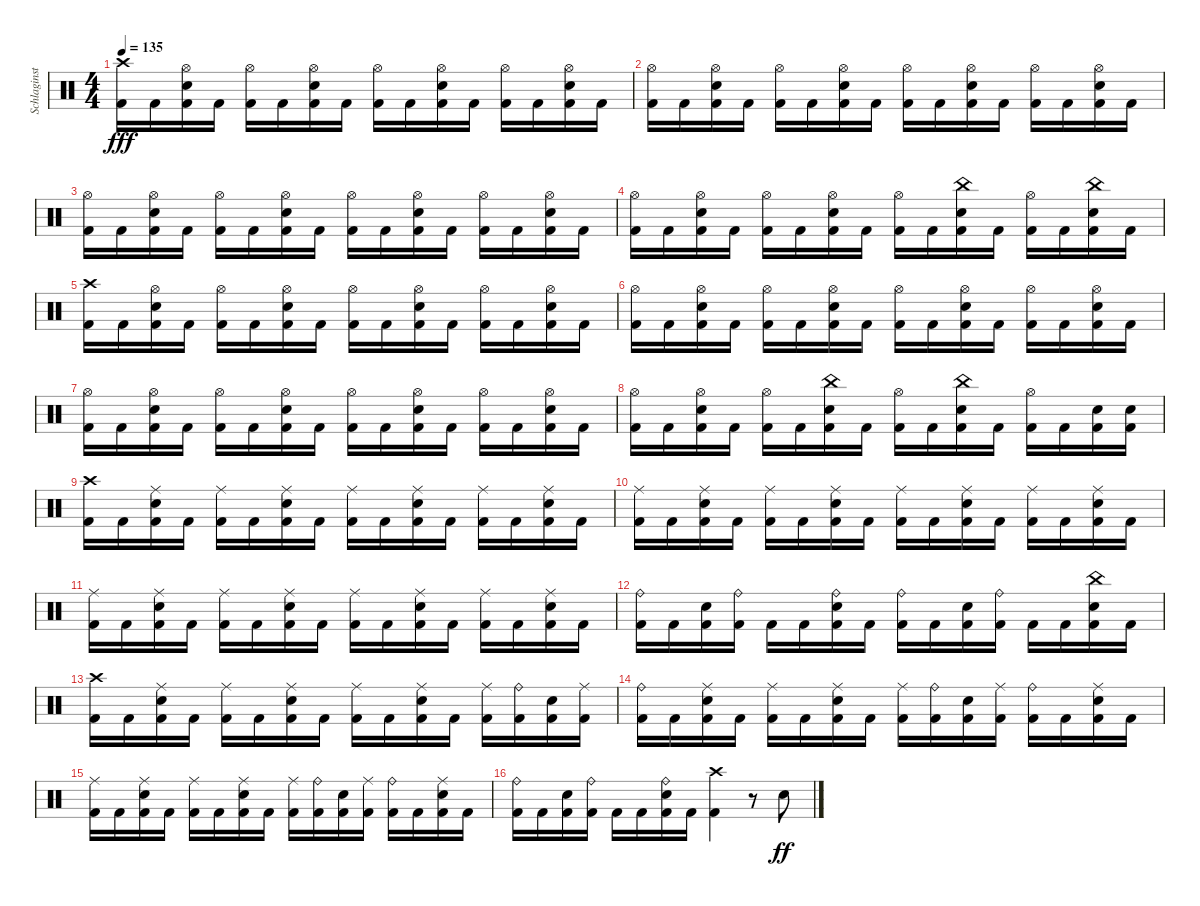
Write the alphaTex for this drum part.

\track ("Schlaginstrumente - Auswahl" "Schlaginst") {instrument percussion}
\staff {score}
\articulation defaults
\ts (4 4)
\tempo 135
\clef neutral
\ks c
("Crash high (hit)" "Kick (hit) 2").16{dy fff} "Kick (hit) 2".16 ("Hi-Hat (open)" "Snare (hit) 2" "Kick (hit) 2").16 "Kick (hit) 2".16 ("Hi-Hat (open)" "Kick (hit) 2").16 "Kick (hit) 2".16 ("Hi-Hat (open)" "Snare (hit) 2" "Kick (hit) 2").16 "Kick (hit) 2".16 ("Hi-Hat (open)" "Kick (hit) 2").16 "Kick (hit) 2".16 ("Hi-Hat (open)" "Snare (hit) 2" "Kick (hit) 2").16 "Kick (hit) 2".16 ("Hi-Hat (open)" "Kick (hit) 2").16 "Kick (hit) 2".16 ("Hi-Hat (open)" "Snare (hit) 2" "Kick (hit) 2").16 "Kick (hit) 2".16 |
("Hi-Hat (open)" "Kick (hit) 2").16 "Kick (hit) 2".16 ("Hi-Hat (open)" "Snare (hit) 2" "Kick (hit) 2").16 "Kick (hit) 2".16 ("Hi-Hat (open)" "Kick (hit) 2").16 "Kick (hit) 2".16 ("Hi-Hat (open)" "Snare (hit) 2" "Kick (hit) 2").16 "Kick (hit) 2".16 ("Hi-Hat (open)" "Kick (hit) 2").16 "Kick (hit) 2".16 ("Hi-Hat (open)" "Snare (hit) 2" "Kick (hit) 2").16 "Kick (hit) 2".16 ("Hi-Hat (open)" "Kick (hit) 2").16 "Kick (hit) 2".16 ("Hi-Hat (open)" "Snare (hit) 2" "Kick (hit) 2").16 "Kick (hit) 2".16 |
("Hi-Hat (open)" "Kick (hit) 2").16 "Kick (hit) 2".16 ("Hi-Hat (open)" "Snare (hit) 2" "Kick (hit) 2").16 "Kick (hit) 2".16 ("Hi-Hat (open)" "Kick (hit) 2").16 "Kick (hit) 2".16 ("Hi-Hat (open)" "Snare (hit) 2" "Kick (hit) 2").16 "Kick (hit) 2".16 ("Hi-Hat (open)" "Kick (hit) 2").16 "Kick (hit) 2".16 ("Hi-Hat (open)" "Snare (hit) 2" "Kick (hit) 2").16 "Kick (hit) 2".16 ("Hi-Hat (open)" "Kick (hit) 2").16 "Kick (hit) 2".16 ("Hi-Hat (open)" "Snare (hit) 2" "Kick (hit) 2").16 "Kick (hit) 2".16 |
("Hi-Hat (open)" "Kick (hit) 2").16 "Kick (hit) 2".16 ("Hi-Hat (open)" "Snare (hit) 2" "Kick (hit) 2").16 "Kick (hit) 2".16 ("Hi-Hat (open)" "Kick (hit) 2").16 "Kick (hit) 2".16 ("Hi-Hat (open)" "Snare (hit) 2" "Kick (hit) 2").16 "Kick (hit) 2".16 ("Hi-Hat (open)" "Kick (hit) 2").16 "Kick (hit) 2".16 ("China (hit)" "Snare (hit) 2" "Kick (hit) 2").16 "Kick (hit) 2".16 ("Hi-Hat (open)" "Kick (hit) 2").16 "Kick (hit) 2".16 ("China (hit)" "Snare (hit) 2" "Kick (hit) 2").16 "Kick (hit) 2".16 |
("Crash high (hit)" "Kick (hit) 2").16 "Kick (hit) 2".16 ("Hi-Hat (open)" "Snare (hit) 2" "Kick (hit) 2").16 "Kick (hit) 2".16 ("Hi-Hat (open)" "Kick (hit) 2").16 "Kick (hit) 2".16 ("Hi-Hat (open)" "Snare (hit) 2" "Kick (hit) 2").16 "Kick (hit) 2".16 ("Hi-Hat (open)" "Kick (hit) 2").16 "Kick (hit) 2".16 ("Hi-Hat (open)" "Snare (hit) 2" "Kick (hit) 2").16 "Kick (hit) 2".16 ("Hi-Hat (open)" "Kick (hit) 2").16 "Kick (hit) 2".16 ("Hi-Hat (open)" "Snare (hit) 2" "Kick (hit) 2").16 "Kick (hit) 2".16 |
("Hi-Hat (open)" "Kick (hit) 2").16 "Kick (hit) 2".16 ("Hi-Hat (open)" "Snare (hit) 2" "Kick (hit) 2").16 "Kick (hit) 2".16 ("Hi-Hat (open)" "Kick (hit) 2").16 "Kick (hit) 2".16 ("Hi-Hat (open)" "Snare (hit) 2" "Kick (hit) 2").16 "Kick (hit) 2".16 ("Hi-Hat (open)" "Kick (hit) 2").16 "Kick (hit) 2".16 ("Hi-Hat (open)" "Snare (hit) 2" "Kick (hit) 2").16 "Kick (hit) 2".16 ("Hi-Hat (open)" "Kick (hit) 2").16 "Kick (hit) 2".16 ("Hi-Hat (open)" "Snare (hit) 2" "Kick (hit) 2").16 "Kick (hit) 2".16 |
("Hi-Hat (open)" "Kick (hit) 2").16 "Kick (hit) 2".16 ("Hi-Hat (open)" "Snare (hit) 2" "Kick (hit) 2").16 "Kick (hit) 2".16 ("Hi-Hat (open)" "Kick (hit) 2").16 "Kick (hit) 2".16 ("Hi-Hat (open)" "Snare (hit) 2" "Kick (hit) 2").16 "Kick (hit) 2".16 ("Hi-Hat (open)" "Kick (hit) 2").16 "Kick (hit) 2".16 ("Hi-Hat (open)" "Snare (hit) 2" "Kick (hit) 2").16 "Kick (hit) 2".16 ("Hi-Hat (open)" "Kick (hit) 2").16 "Kick (hit) 2".16 ("Hi-Hat (open)" "Snare (hit) 2" "Kick (hit) 2").16 "Kick (hit) 2".16 |
("Hi-Hat (open)" "Kick (hit) 2").16 "Kick (hit) 2".16 ("Hi-Hat (open)" "Snare (hit) 2" "Kick (hit) 2").16 "Kick (hit) 2".16 ("Hi-Hat (open)" "Kick (hit) 2").16 "Kick (hit) 2".16 ("China (hit)" "Snare (hit) 2" "Kick (hit) 2").16 "Kick (hit) 2".16 ("Hi-Hat (open)" "Kick (hit) 2").16 "Kick (hit) 2".16 ("China (hit)" "Snare (hit) 2" "Kick (hit) 2").16 "Kick (hit) 2".16 ("Hi-Hat (open)" "Kick (hit) 2").16 "Kick (hit) 2".16 ("Snare (hit) 2" "Kick (hit) 2").16 ("Snare (hit) 2" "Kick (hit) 2").16 |
("Crash high (hit)" "Kick (hit) 2").16 "Kick (hit) 2".16 ("Ride (middle)" "Snare (hit) 2" "Kick (hit) 2").16 "Kick (hit) 2".16 ("Ride (middle)" "Kick (hit) 2").16 "Kick (hit) 2".16 ("Ride (middle)" "Snare (hit) 2" "Kick (hit) 2").16 "Kick (hit) 2".16 ("Ride (middle)" "Kick (hit) 2").16 "Kick (hit) 2".16 ("Ride (middle)" "Snare (hit) 2" "Kick (hit) 2").16 "Kick (hit) 2".16 ("Ride (middle)" "Kick (hit) 2").16 "Kick (hit) 2".16 ("Ride (middle)" "Snare (hit) 2" "Kick (hit) 2").16 "Kick (hit) 2".16 |
("Ride (middle)" "Kick (hit) 2").16 "Kick (hit) 2".16 ("Ride (middle)" "Snare (hit) 2" "Kick (hit) 2").16 "Kick (hit) 2".16 ("Ride (middle)" "Kick (hit) 2").16 "Kick (hit) 2".16 ("Ride (middle)" "Snare (hit) 2" "Kick (hit) 2").16 "Kick (hit) 2".16 ("Ride (middle)" "Kick (hit) 2").16 "Kick (hit) 2".16 ("Ride (middle)" "Snare (hit) 2" "Kick (hit) 2").16 "Kick (hit) 2".16 ("Ride (middle)" "Kick (hit) 2").16 "Kick (hit) 2".16 ("Ride (middle)" "Snare (hit) 2" "Kick (hit) 2").16 "Kick (hit) 2".16 |
("Ride (middle)" "Kick (hit) 2").16 "Kick (hit) 2".16 ("Ride (middle)" "Snare (hit) 2" "Kick (hit) 2").16 "Kick (hit) 2".16 ("Ride (middle)" "Kick (hit) 2").16 "Kick (hit) 2".16 ("Ride (middle)" "Snare (hit) 2" "Kick (hit) 2").16 "Kick (hit) 2".16 ("Ride (middle)" "Kick (hit) 2").16 "Kick (hit) 2".16 ("Ride (middle)" "Snare (hit) 2" "Kick (hit) 2").16 "Kick (hit) 2".16 ("Ride (middle)" "Kick (hit) 2").16 "Kick (hit) 2".16 ("Ride (middle)" "Snare (hit) 2" "Kick (hit) 2").16 "Kick (hit) 2".16 |
("Ride (bell)" "Kick (hit) 2").16 "Kick (hit) 2".16 ("Snare (hit) 2" "Kick (hit) 2").16 ("Ride (bell)" "Kick (hit) 2").16 "Kick (hit) 2".16 "Kick (hit) 2".16 ("Ride (bell)" "Snare (hit) 2" "Kick (hit) 2").16 "Kick (hit) 2".16 ("Ride (bell)" "Kick (hit) 2").16 "Kick (hit) 2".16 ("Snare (hit) 2" "Kick (hit) 2").16 ("Ride (bell)" "Kick (hit) 2").16 "Kick (hit) 2".16 "Kick (hit) 2".16 ("China (hit)" "Snare (hit) 2" "Kick (hit) 2").16 "Kick (hit) 2".16 |
("Crash high (hit)" "Kick (hit) 2").16 "Kick (hit) 2".16 ("Ride (middle)" "Snare (hit) 2" "Kick (hit) 2").16 "Kick (hit) 2".16 ("Ride (middle)" "Kick (hit) 2").16 "Kick (hit) 2".16 ("Ride (middle)" "Snare (hit) 2" "Kick (hit) 2").16 "Kick (hit) 2".16 ("Ride (middle)" "Kick (hit) 2").16 "Kick (hit) 2".16 ("Ride (middle)" "Snare (hit) 2" "Kick (hit) 2").16 "Kick (hit) 2".16 ("Ride (middle)" "Kick (hit) 2").16 ("Ride (bell)" "Kick (hit) 2").16 ("Snare (hit) 2" "Kick (hit) 2").16 ("Ride (middle)" "Kick (hit) 2").16 |
("Ride (bell)" "Kick (hit) 2").16 "Kick (hit) 2".16 ("Ride (middle)" "Snare (hit) 2" "Kick (hit) 2").16 "Kick (hit) 2".16 ("Ride (middle)" "Kick (hit) 2").16 "Kick (hit) 2".16 ("Ride (middle)" "Snare (hit) 2" "Kick (hit) 2").16 "Kick (hit) 2".16 ("Ride (middle)" "Kick (hit) 2").16 ("Ride (bell)" "Kick (hit) 2").16 ("Snare (hit) 2" "Kick (hit) 2").16 ("Ride (middle)" "Kick (hit) 2").16 ("Ride (bell)" "Kick (hit) 2").16 "Kick (hit) 2".16 ("Ride (middle)" "Snare (hit) 2" "Kick (hit) 2").16 "Kick (hit) 2".16 |
("Ride (middle)" "Kick (hit) 2").16 "Kick (hit) 2".16 ("Ride (middle)" "Snare (hit) 2" "Kick (hit) 2").16 "Kick (hit) 2".16 ("Ride (middle)" "Kick (hit) 2").16 "Kick (hit) 2".16 ("Ride (middle)" "Snare (hit) 2" "Kick (hit) 2").16 "Kick (hit) 2".16 ("Ride (middle)" "Kick (hit) 2").16 ("Ride (bell)" "Kick (hit) 2").16 ("Snare (hit) 2" "Kick (hit) 2").16 ("Ride (middle)" "Kick (hit) 2").16 ("Ride (bell)" "Kick (hit) 2").16 "Kick (hit) 2".16 ("Ride (middle)" "Snare (hit) 2" "Kick (hit) 2").16 "Kick (hit) 2".16 |
("Ride (bell)" "Kick (hit) 2").16 "Kick (hit) 2".16 ("Snare (hit) 2" "Kick (hit) 2").16 ("Ride (bell)" "Kick (hit) 2").16 "Kick (hit) 2".16 "Kick (hit) 2".16 ("Ride (bell)" "Snare (hit) 2" "Kick (hit) 2").16 "Kick (hit) 2".16 ("Crash high (hit)" "Kick (hit) 2").4 r.8 "Snare (hit) 2".8{dy ff}
